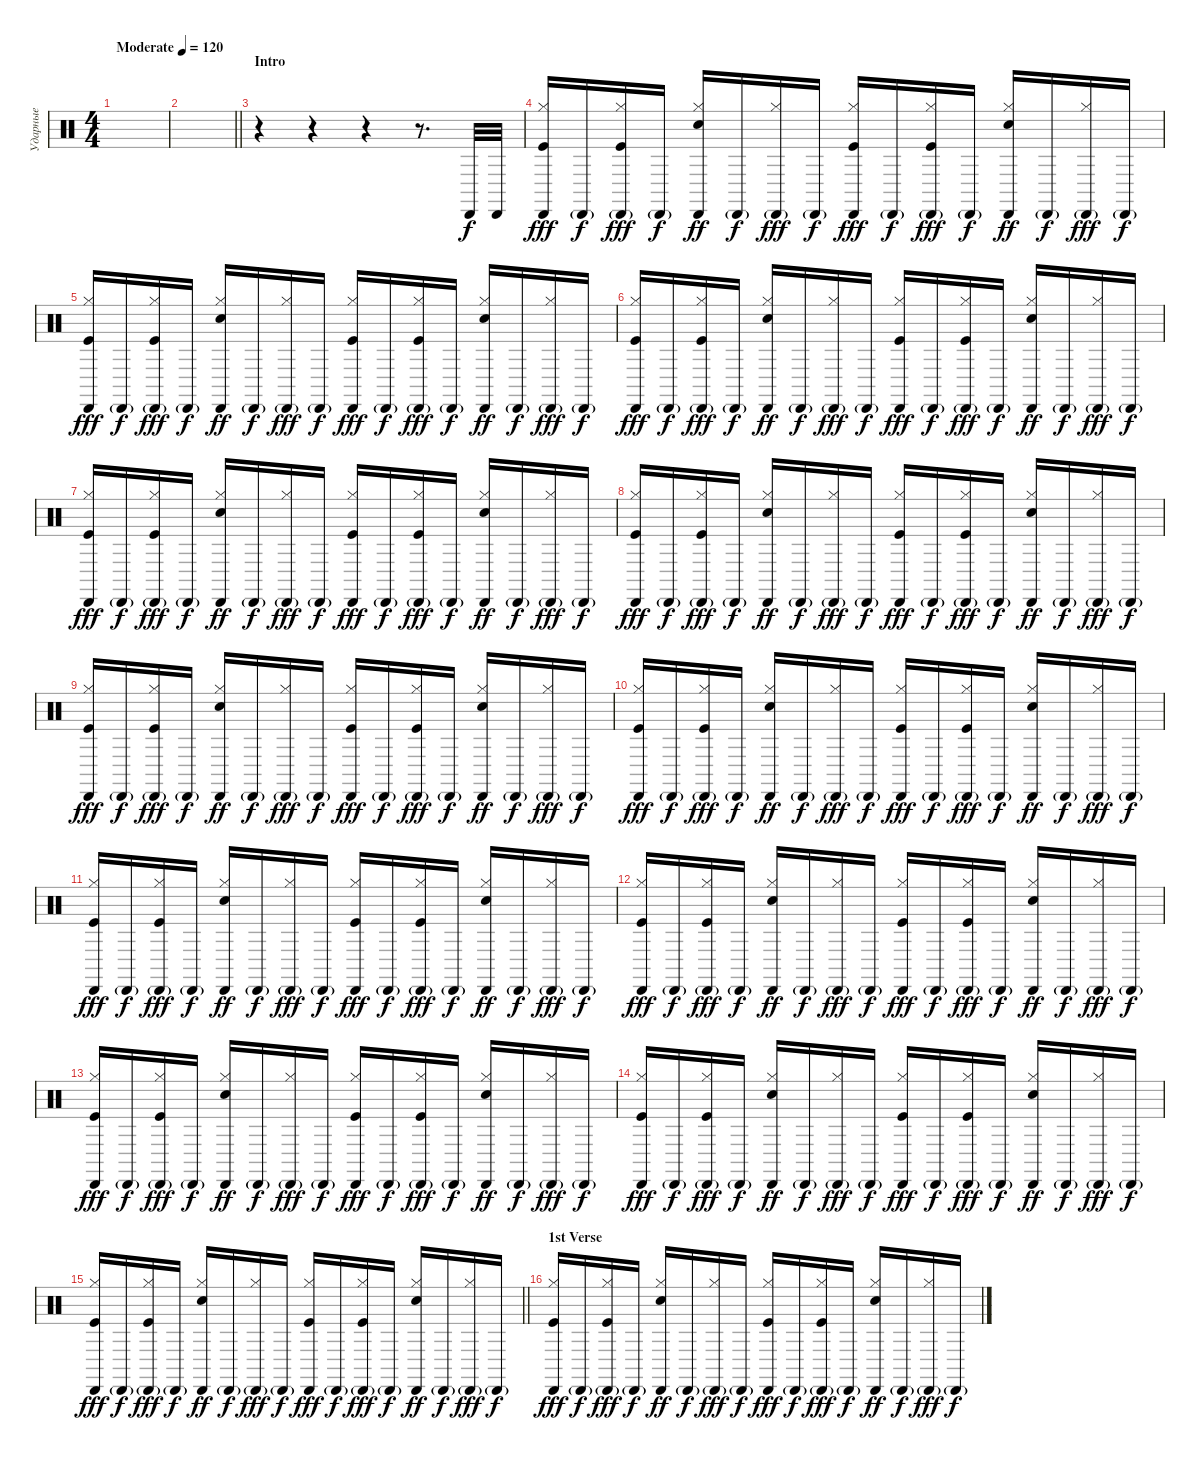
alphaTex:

\track ("Ударные" "Ударные") {instrument percussion}
\staff {score}
\articulation defaults
\ts (4 4)
\tempo (120 "Moderate")
\clef neutral
\ks c
|
\barLineRight lightlight
|
\section ("" "Intro")
r.4 r.4 r.4 r.8{d} "Cabasa (hit)".32 "Cabasa (hit)".32 |
("Hi-Hat (closed)" "Cabasa (hit)" "Kick (hit)").16{dy fff} "Cabasa (hit)"{g}.16{dy f} ("Hi-Hat (closed)" "Cabasa (hit)"{g} "Kick (hit)").16{dy fff} "Cabasa (hit)"{g}.16{dy f} ("Hi-Hat (closed)" "Cabasa (hit)" "Snare (hit) 2").16{dy ff} "Cabasa (hit)"{g}.16{dy f} ("Hi-Hat (closed)" "Cabasa (hit)"{g}).16{dy fff} "Cabasa (hit)"{g}.16{dy f} ("Hi-Hat (closed)" "Cabasa (hit)" "Kick (hit)").16{dy fff} "Cabasa (hit)"{g}.16{dy f} ("Hi-Hat (closed)" "Cabasa (hit)"{g} "Kick (hit)").16{dy fff} "Cabasa (hit)"{g}.16{dy f} ("Hi-Hat (closed)" "Cabasa (hit)" "Snare (hit) 2").16{dy ff} "Cabasa (hit)"{g}.16{dy f} ("Hi-Hat (closed)" "Cabasa (hit)"{g}).16{dy fff} "Cabasa (hit)"{g}.16{dy f} |
("Hi-Hat (closed)" "Cabasa (hit)" "Kick (hit)").16{dy fff} "Cabasa (hit)"{g}.16{dy f} ("Hi-Hat (closed)" "Cabasa (hit)"{g} "Kick (hit)").16{dy fff} "Cabasa (hit)"{g}.16{dy f} ("Hi-Hat (closed)" "Cabasa (hit)" "Snare (hit) 2").16{dy ff} "Cabasa (hit)"{g}.16{dy f} ("Hi-Hat (closed)" "Cabasa (hit)"{g}).16{dy fff} "Cabasa (hit)"{g}.16{dy f} ("Hi-Hat (closed)" "Cabasa (hit)" "Kick (hit)").16{dy fff} "Cabasa (hit)"{g}.16{dy f} ("Hi-Hat (closed)" "Cabasa (hit)"{g} "Kick (hit)").16{dy fff} "Cabasa (hit)"{g}.16{dy f} ("Hi-Hat (closed)" "Cabasa (hit)" "Snare (hit) 2").16{dy ff} "Cabasa (hit)"{g}.16{dy f} ("Hi-Hat (closed)" "Cabasa (hit)"{g}).16{dy fff} "Cabasa (hit)"{g}.16{dy f} |
("Hi-Hat (closed)" "Cabasa (hit)" "Kick (hit)").16{dy fff} "Cabasa (hit)"{g}.16{dy f} ("Hi-Hat (closed)" "Cabasa (hit)"{g} "Kick (hit)").16{dy fff} "Cabasa (hit)"{g}.16{dy f} ("Hi-Hat (closed)" "Cabasa (hit)" "Snare (hit) 2").16{dy ff} "Cabasa (hit)"{g}.16{dy f} ("Hi-Hat (closed)" "Cabasa (hit)"{g}).16{dy fff} "Cabasa (hit)"{g}.16{dy f} ("Hi-Hat (closed)" "Cabasa (hit)" "Kick (hit)").16{dy fff} "Cabasa (hit)"{g}.16{dy f} ("Hi-Hat (closed)" "Cabasa (hit)"{g} "Kick (hit)").16{dy fff} "Cabasa (hit)"{g}.16{dy f} ("Hi-Hat (closed)" "Cabasa (hit)" "Snare (hit) 2").16{dy ff} "Cabasa (hit)"{g}.16{dy f} ("Hi-Hat (closed)" "Cabasa (hit)"{g}).16{dy fff} "Cabasa (hit)"{g}.16{dy f} |
("Hi-Hat (closed)" "Cabasa (hit)" "Kick (hit)").16{dy fff} "Cabasa (hit)"{g}.16{dy f} ("Hi-Hat (closed)" "Cabasa (hit)"{g} "Kick (hit)").16{dy fff} "Cabasa (hit)"{g}.16{dy f} ("Hi-Hat (closed)" "Cabasa (hit)" "Snare (hit) 2").16{dy ff} "Cabasa (hit)"{g}.16{dy f} ("Hi-Hat (closed)" "Cabasa (hit)"{g}).16{dy fff} "Cabasa (hit)"{g}.16{dy f} ("Hi-Hat (closed)" "Cabasa (hit)" "Kick (hit)").16{dy fff} "Cabasa (hit)"{g}.16{dy f} ("Hi-Hat (closed)" "Cabasa (hit)"{g} "Kick (hit)").16{dy fff} "Cabasa (hit)"{g}.16{dy f} ("Hi-Hat (closed)" "Cabasa (hit)" "Snare (hit) 2").16{dy ff} "Cabasa (hit)"{g}.16{dy f} ("Hi-Hat (closed)" "Cabasa (hit)"{g}).16{dy fff} "Cabasa (hit)"{g}.16{dy f} |
("Hi-Hat (closed)" "Cabasa (hit)" "Kick (hit)").16{dy fff} "Cabasa (hit)"{g}.16{dy f} ("Hi-Hat (closed)" "Cabasa (hit)"{g} "Kick (hit)").16{dy fff} "Cabasa (hit)"{g}.16{dy f} ("Hi-Hat (closed)" "Cabasa (hit)" "Snare (hit) 2").16{dy ff} "Cabasa (hit)"{g}.16{dy f} ("Hi-Hat (closed)" "Cabasa (hit)"{g}).16{dy fff} "Cabasa (hit)"{g}.16{dy f} ("Hi-Hat (closed)" "Cabasa (hit)" "Kick (hit)").16{dy fff} "Cabasa (hit)"{g}.16{dy f} ("Hi-Hat (closed)" "Cabasa (hit)"{g} "Kick (hit)").16{dy fff} "Cabasa (hit)"{g}.16{dy f} ("Hi-Hat (closed)" "Cabasa (hit)" "Snare (hit) 2").16{dy ff} "Cabasa (hit)"{g}.16{dy f} ("Hi-Hat (closed)" "Cabasa (hit)"{g}).16{dy fff} "Cabasa (hit)"{g}.16{dy f} |
("Hi-Hat (closed)" "Cabasa (hit)" "Kick (hit)").16{dy fff} "Cabasa (hit)"{g}.16{dy f} ("Hi-Hat (closed)" "Cabasa (hit)"{g} "Kick (hit)").16{dy fff} "Cabasa (hit)"{g}.16{dy f} ("Hi-Hat (closed)" "Cabasa (hit)" "Snare (hit) 2").16{dy ff} "Cabasa (hit)"{g}.16{dy f} ("Hi-Hat (closed)" "Cabasa (hit)"{g}).16{dy fff} "Cabasa (hit)"{g}.16{dy f} ("Hi-Hat (closed)" "Cabasa (hit)" "Kick (hit)").16{dy fff} "Cabasa (hit)"{g}.16{dy f} ("Hi-Hat (closed)" "Cabasa (hit)"{g} "Kick (hit)").16{dy fff} "Cabasa (hit)"{g}.16{dy f} ("Hi-Hat (closed)" "Cabasa (hit)" "Snare (hit) 2").16{dy ff} "Cabasa (hit)"{g}.16{dy f} ("Hi-Hat (closed)" "Cabasa (hit)"{g}).16{dy fff} "Cabasa (hit)"{g}.16{dy f} |
("Hi-Hat (closed)" "Cabasa (hit)" "Kick (hit)").16{dy fff} "Cabasa (hit)"{g}.16{dy f} ("Hi-Hat (closed)" "Cabasa (hit)"{g} "Kick (hit)").16{dy fff} "Cabasa (hit)"{g}.16{dy f} ("Hi-Hat (closed)" "Cabasa (hit)" "Snare (hit) 2").16{dy ff} "Cabasa (hit)"{g}.16{dy f} ("Hi-Hat (closed)" "Cabasa (hit)"{g}).16{dy fff} "Cabasa (hit)"{g}.16{dy f} ("Hi-Hat (closed)" "Cabasa (hit)" "Kick (hit)").16{dy fff} "Cabasa (hit)"{g}.16{dy f} ("Hi-Hat (closed)" "Cabasa (hit)"{g} "Kick (hit)").16{dy fff} "Cabasa (hit)"{g}.16{dy f} ("Hi-Hat (closed)" "Cabasa (hit)" "Snare (hit) 2").16{dy ff} "Cabasa (hit)"{g}.16{dy f} ("Hi-Hat (closed)" "Cabasa (hit)"{g}).16{dy fff} "Cabasa (hit)"{g}.16{dy f} |
("Hi-Hat (closed)" "Cabasa (hit)" "Kick (hit)").16{dy fff} "Cabasa (hit)"{g}.16{dy f} ("Hi-Hat (closed)" "Cabasa (hit)"{g} "Kick (hit)").16{dy fff} "Cabasa (hit)"{g}.16{dy f} ("Hi-Hat (closed)" "Cabasa (hit)" "Snare (hit) 2").16{dy ff} "Cabasa (hit)"{g}.16{dy f} ("Hi-Hat (closed)" "Cabasa (hit)"{g}).16{dy fff} "Cabasa (hit)"{g}.16{dy f} ("Hi-Hat (closed)" "Cabasa (hit)" "Kick (hit)").16{dy fff} "Cabasa (hit)"{g}.16{dy f} ("Hi-Hat (closed)" "Cabasa (hit)"{g} "Kick (hit)").16{dy fff} "Cabasa (hit)"{g}.16{dy f} ("Hi-Hat (closed)" "Cabasa (hit)" "Snare (hit) 2").16{dy ff} "Cabasa (hit)"{g}.16{dy f} ("Hi-Hat (closed)" "Cabasa (hit)"{g}).16{dy fff} "Cabasa (hit)"{g}.16{dy f} |
("Hi-Hat (closed)" "Cabasa (hit)" "Kick (hit)").16{dy fff} "Cabasa (hit)"{g}.16{dy f} ("Hi-Hat (closed)" "Cabasa (hit)"{g} "Kick (hit)").16{dy fff} "Cabasa (hit)"{g}.16{dy f} ("Hi-Hat (closed)" "Cabasa (hit)" "Snare (hit) 2").16{dy ff} "Cabasa (hit)"{g}.16{dy f} ("Hi-Hat (closed)" "Cabasa (hit)"{g}).16{dy fff} "Cabasa (hit)"{g}.16{dy f} ("Hi-Hat (closed)" "Cabasa (hit)" "Kick (hit)").16{dy fff} "Cabasa (hit)"{g}.16{dy f} ("Hi-Hat (closed)" "Cabasa (hit)"{g} "Kick (hit)").16{dy fff} "Cabasa (hit)"{g}.16{dy f} ("Hi-Hat (closed)" "Cabasa (hit)" "Snare (hit) 2").16{dy ff} "Cabasa (hit)"{g}.16{dy f} ("Hi-Hat (closed)" "Cabasa (hit)"{g}).16{dy fff} "Cabasa (hit)"{g}.16{dy f} |
("Hi-Hat (closed)" "Cabasa (hit)" "Kick (hit)").16{dy fff} "Cabasa (hit)"{g}.16{dy f} ("Hi-Hat (closed)" "Cabasa (hit)"{g} "Kick (hit)").16{dy fff} "Cabasa (hit)"{g}.16{dy f} ("Hi-Hat (closed)" "Cabasa (hit)" "Snare (hit) 2").16{dy ff} "Cabasa (hit)"{g}.16{dy f} ("Hi-Hat (closed)" "Cabasa (hit)"{g}).16{dy fff} "Cabasa (hit)"{g}.16{dy f} ("Hi-Hat (closed)" "Cabasa (hit)" "Kick (hit)").16{dy fff} "Cabasa (hit)"{g}.16{dy f} ("Hi-Hat (closed)" "Cabasa (hit)"{g} "Kick (hit)").16{dy fff} "Cabasa (hit)"{g}.16{dy f} ("Hi-Hat (closed)" "Cabasa (hit)" "Snare (hit) 2").16{dy ff} "Cabasa (hit)"{g}.16{dy f} ("Hi-Hat (closed)" "Cabasa (hit)"{g}).16{dy fff} "Cabasa (hit)"{g}.16{dy f} |
("Hi-Hat (closed)" "Cabasa (hit)" "Kick (hit)").16{dy fff} "Cabasa (hit)"{g}.16{dy f} ("Hi-Hat (closed)" "Cabasa (hit)"{g} "Kick (hit)").16{dy fff} "Cabasa (hit)"{g}.16{dy f} ("Hi-Hat (closed)" "Cabasa (hit)" "Snare (hit) 2").16{dy ff} "Cabasa (hit)"{g}.16{dy f} ("Hi-Hat (closed)" "Cabasa (hit)"{g}).16{dy fff} "Cabasa (hit)"{g}.16{dy f} ("Hi-Hat (closed)" "Cabasa (hit)" "Kick (hit)").16{dy fff} "Cabasa (hit)"{g}.16{dy f} ("Hi-Hat (closed)" "Cabasa (hit)"{g} "Kick (hit)").16{dy fff} "Cabasa (hit)"{g}.16{dy f} ("Hi-Hat (closed)" "Cabasa (hit)" "Snare (hit) 2").16{dy ff} "Cabasa (hit)"{g}.16{dy f} ("Hi-Hat (closed)" "Cabasa (hit)"{g}).16{dy fff} "Cabasa (hit)"{g}.16{dy f} |
\barLineRight lightlight
("Hi-Hat (closed)" "Cabasa (hit)" "Kick (hit)").16{dy fff} "Cabasa (hit)"{g}.16{dy f} ("Hi-Hat (closed)" "Cabasa (hit)"{g} "Kick (hit)").16{dy fff} "Cabasa (hit)"{g}.16{dy f} ("Hi-Hat (closed)" "Cabasa (hit)" "Snare (hit) 2").16{dy ff} "Cabasa (hit)"{g}.16{dy f} ("Hi-Hat (closed)" "Cabasa (hit)"{g}).16{dy fff} "Cabasa (hit)"{g}.16{dy f} ("Hi-Hat (closed)" "Cabasa (hit)" "Kick (hit)").16{dy fff} "Cabasa (hit)"{g}.16{dy f} ("Hi-Hat (closed)" "Cabasa (hit)"{g} "Kick (hit)").16{dy fff} "Cabasa (hit)"{g}.16{dy f} ("Hi-Hat (closed)" "Cabasa (hit)" "Snare (hit) 2").16{dy ff} "Cabasa (hit)"{g}.16{dy f} ("Hi-Hat (closed)" "Cabasa (hit)"{g}).16{dy fff} "Cabasa (hit)"{g}.16{dy f} |
\section ("" "1st Verse")
("Hi-Hat (closed)" "Cabasa (hit)" "Kick (hit)").16{dy fff} "Cabasa (hit)"{g}.16{dy f} ("Hi-Hat (closed)" "Cabasa (hit)"{g} "Kick (hit)").16{dy fff} "Cabasa (hit)"{g}.16{dy f} ("Hi-Hat (closed)" "Cabasa (hit)" "Snare (hit) 2").16{dy ff} "Cabasa (hit)"{g}.16{dy f} ("Hi-Hat (closed)" "Cabasa (hit)"{g}).16{dy fff} "Cabasa (hit)"{g}.16{dy f} ("Hi-Hat (closed)" "Cabasa (hit)" "Kick (hit)").16{dy fff} "Cabasa (hit)"{g}.16{dy f} ("Hi-Hat (closed)" "Cabasa (hit)"{g} "Kick (hit)").16{dy fff} "Cabasa (hit)"{g}.16{dy f} ("Hi-Hat (closed)" "Cabasa (hit)" "Snare (hit) 2").16{dy ff} "Cabasa (hit)"{g}.16{dy f} ("Hi-Hat (closed)" "Cabasa (hit)"{g}).16{dy fff} "Cabasa (hit)"{g}.16{dy f}
